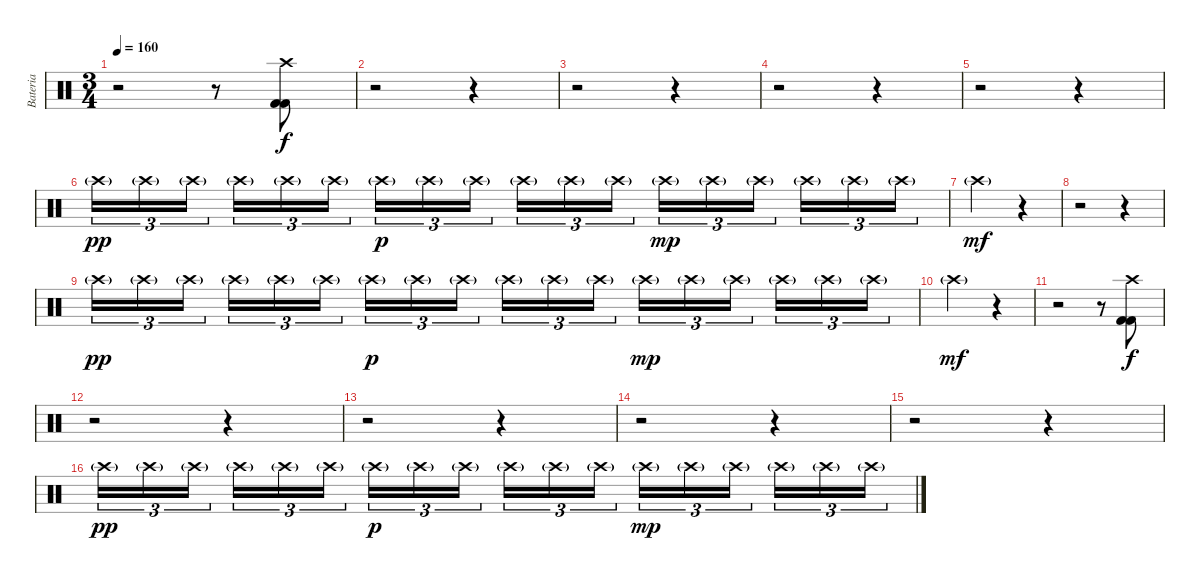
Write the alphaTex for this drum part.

\track ("Bateria" "Bateria") {instrument percussion}
\staff {score}
\articulation defaults
\ts (3 4)
\tempo 160
\clef neutral
\ks c
r.2{dy f} r.8 ("Kick (hit) 2" "Kick (hit) 2" "Crash high (hit)").8 |
r.2 r.4 |
r.2 r.4 |
r.2 r.4 |
r.2 r.4 |
"Crash high (hit)"{g}.16{tu (3 2) dy pp} "Crash high (hit)"{g}.16{tu (3 2)} "Crash high (hit)"{g}.16{tu (3 2)} "Crash high (hit)"{g}.16{tu (3 2)} "Crash high (hit)"{g}.16{tu (3 2)} "Crash high (hit)"{g}.16{tu (3 2)} "Crash high (hit)"{g}.16{tu (3 2) dy p} "Crash high (hit)"{g}.16{tu (3 2)} "Crash high (hit)"{g}.16{tu (3 2)} "Crash high (hit)"{g}.16{tu (3 2)} "Crash high (hit)"{g}.16{tu (3 2)} "Crash high (hit)"{g}.16{tu (3 2)} "Crash high (hit)"{g}.16{tu (3 2) dy mp} "Crash high (hit)"{g}.16{tu (3 2)} "Crash high (hit)"{g}.16{tu (3 2)} "Crash high (hit)"{g}.16{tu (3 2)} "Crash high (hit)"{g}.16{tu (3 2)} "Crash high (hit)"{g}.16{tu (3 2)} |
"Crash high (hit)"{g}.2{dy mf} r.4 |
r.2 r.4 |
"Crash high (hit)"{g}.16{tu (3 2) dy pp} "Crash high (hit)"{g}.16{tu (3 2)} "Crash high (hit)"{g}.16{tu (3 2)} "Crash high (hit)"{g}.16{tu (3 2)} "Crash high (hit)"{g}.16{tu (3 2)} "Crash high (hit)"{g}.16{tu (3 2)} "Crash high (hit)"{g}.16{tu (3 2) dy p} "Crash high (hit)"{g}.16{tu (3 2)} "Crash high (hit)"{g}.16{tu (3 2)} "Crash high (hit)"{g}.16{tu (3 2)} "Crash high (hit)"{g}.16{tu (3 2)} "Crash high (hit)"{g}.16{tu (3 2)} "Crash high (hit)"{g}.16{tu (3 2) dy mp} "Crash high (hit)"{g}.16{tu (3 2)} "Crash high (hit)"{g}.16{tu (3 2)} "Crash high (hit)"{g}.16{tu (3 2)} "Crash high (hit)"{g}.16{tu (3 2)} "Crash high (hit)"{g}.16{tu (3 2)} |
"Crash high (hit)"{g}.2{dy mf} r.4 |
r.2 r.8 ("Kick (hit) 2" "Kick (hit) 2" "Crash high (hit)").8{dy f} |
r.2 r.4 |
r.2 r.4 |
r.2 r.4 |
r.2 r.4 |
"Crash high (hit)"{g}.16{tu (3 2) dy pp} "Crash high (hit)"{g}.16{tu (3 2)} "Crash high (hit)"{g}.16{tu (3 2)} "Crash high (hit)"{g}.16{tu (3 2)} "Crash high (hit)"{g}.16{tu (3 2)} "Crash high (hit)"{g}.16{tu (3 2)} "Crash high (hit)"{g}.16{tu (3 2) dy p} "Crash high (hit)"{g}.16{tu (3 2)} "Crash high (hit)"{g}.16{tu (3 2)} "Crash high (hit)"{g}.16{tu (3 2)} "Crash high (hit)"{g}.16{tu (3 2)} "Crash high (hit)"{g}.16{tu (3 2)} "Crash high (hit)"{g}.16{tu (3 2) dy mp} "Crash high (hit)"{g}.16{tu (3 2)} "Crash high (hit)"{g}.16{tu (3 2)} "Crash high (hit)"{g}.16{tu (3 2)} "Crash high (hit)"{g}.16{tu (3 2)} "Crash high (hit)"{g}.16{tu (3 2)}
